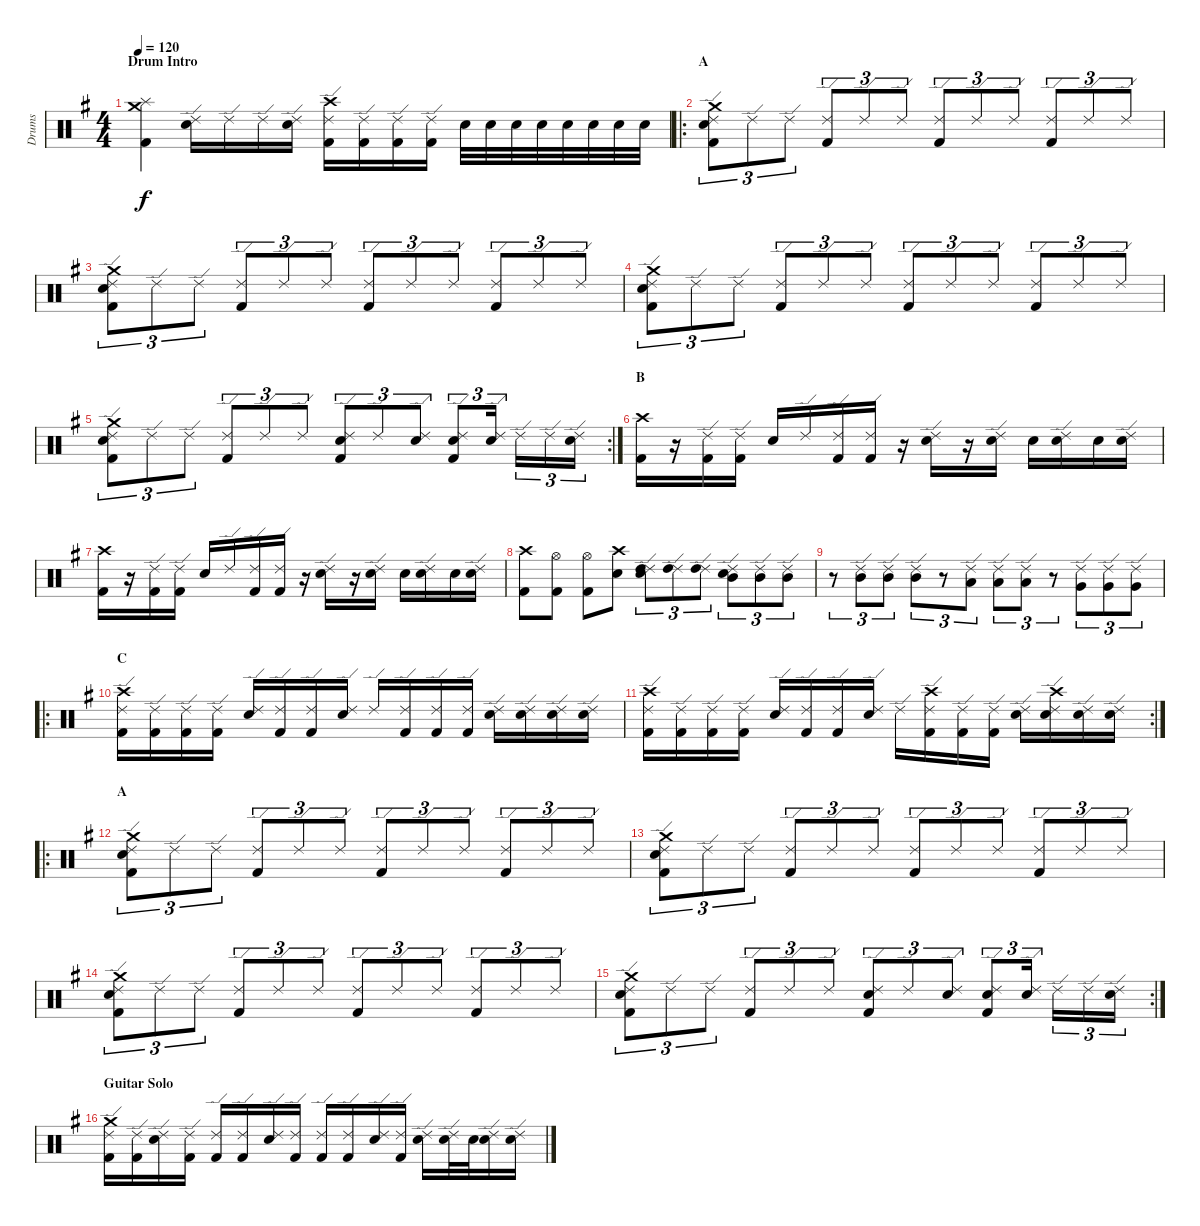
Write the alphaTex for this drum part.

\track ("Drums" "Drums") {instrument percussion}
\staff {score}
\articulation defaults
\ts (4 4)
\section ("" "Drum Intro")
\tempo 120
\clef neutral
\ks eminor
("Crash medium (hit)" "Splash (hit)" "Kick (hit) 2").4{dy f} ("Ride (edge) 2" "Electric Snare (hit)").16 "Ride (edge) 2".16 "Ride (edge) 2".16 ("Ride (edge) 2" "Electric Snare (hit)").16 ("Crash high (hit)" "Ride (edge) 2" "Kick (hit) 2").16 ("Ride (edge) 2" "Kick (hit) 2").16 ("Ride (edge) 2" "Kick (hit) 2").16 ("Ride (edge) 2" "Kick (hit) 2").16 "Electric Snare (hit)".32 "Electric Snare (hit)".32 "Electric Snare (hit)".32 "Electric Snare (hit)".32 "Electric Snare (hit)".32 "Electric Snare (hit)".32 "Electric Snare (hit)".32 "Electric Snare (hit)".32 |
\ro
\section ("" "A ")
("Crash medium (hit)" "Ride (edge) 2" "Electric Snare (hit)" "Kick (hit) 2").8{tu (3 2)} "Ride (edge) 2".8{tu (3 2)} "Ride (edge) 2".8{tu (3 2)} ("Ride (edge) 2" "Kick (hit) 2").8{tu (3 2)} "Ride (edge) 2".8{tu (3 2)} "Ride (edge) 2".8{tu (3 2)} ("Ride (edge) 2" "Kick (hit) 2").8{tu (3 2)} "Ride (edge) 2".8{tu (3 2)} "Ride (edge) 2".8{tu (3 2)} ("Ride (edge) 2" "Kick (hit) 2").8{tu (3 2)} "Ride (edge) 2".8{tu (3 2)} "Ride (edge) 2".8{tu (3 2)} |
("Crash medium (hit)" "Ride (edge) 2" "Electric Snare (hit)" "Kick (hit) 2").8{tu (3 2)} "Ride (edge) 2".8{tu (3 2)} "Ride (edge) 2".8{tu (3 2)} ("Ride (edge) 2" "Kick (hit) 2").8{tu (3 2)} "Ride (edge) 2".8{tu (3 2)} "Ride (edge) 2".8{tu (3 2)} ("Ride (edge) 2" "Kick (hit) 2").8{tu (3 2)} "Ride (edge) 2".8{tu (3 2)} "Ride (edge) 2".8{tu (3 2)} ("Ride (edge) 2" "Kick (hit) 2").8{tu (3 2)} "Ride (edge) 2".8{tu (3 2)} "Ride (edge) 2".8{tu (3 2)} |
("Crash medium (hit)" "Ride (edge) 2" "Electric Snare (hit)" "Kick (hit) 2").8{tu (3 2)} "Ride (edge) 2".8{tu (3 2)} "Ride (edge) 2".8{tu (3 2)} ("Ride (edge) 2" "Kick (hit) 2").8{tu (3 2)} "Ride (edge) 2".8{tu (3 2)} "Ride (edge) 2".8{tu (3 2)} ("Ride (edge) 2" "Kick (hit) 2").8{tu (3 2)} "Ride (edge) 2".8{tu (3 2)} "Ride (edge) 2".8{tu (3 2)} ("Ride (edge) 2" "Kick (hit) 2").8{tu (3 2)} "Ride (edge) 2".8{tu (3 2)} "Ride (edge) 2".8{tu (3 2)} |
\rc 2
("Crash medium (hit)" "Ride (edge) 2" "Electric Snare (hit)" "Kick (hit) 2").8{tu (3 2)} "Ride (edge) 2".8{tu (3 2)} "Ride (edge) 2".8{tu (3 2)} ("Ride (edge) 2" "Kick (hit) 2").8{tu (3 2)} "Ride (edge) 2".8{tu (3 2)} "Ride (edge) 2".8{tu (3 2)} ("Ride (edge) 2" "Electric Snare (hit)" "Kick (hit) 2").8{tu (3 2)} "Ride (edge) 2".8{tu (3 2)} ("Ride (edge) 2" "Electric Snare (hit)").8{tu (3 2)} ("Ride (edge) 2" "Electric Snare (hit)" "Kick (hit) 2").8{tu (3 2)} ("Ride (edge) 2" "Electric Snare (hit)").16{tu (3 2)} "Ride (edge) 2".16{tu (3 2)} "Ride (edge) 2".16{tu (3 2)} ("Ride (edge) 2" "Electric Snare (hit)").16{tu (3 2)} |
\section ("" "B ")
("Crash high (hit)" "Kick (hit) 2").16 r.16 ("Ride (edge) 2" "Kick (hit) 2").16 ("Ride (edge) 2" "Kick (hit) 2").16 "Electric Snare (hit)".16 "Ride (edge) 2".16 ("Ride (edge) 2" "Kick (hit) 2").16 ("Ride (edge) 2" "Kick (hit) 2").16 r.16 ("Ride (edge) 2" "Electric Snare (hit)").16 r.16 ("Ride (edge) 2" "Electric Snare (hit)").16 "Electric Snare (hit)".16 ("Ride (edge) 2" "Electric Snare (hit)").16 "Electric Snare (hit)".16 ("Ride (edge) 2" "Electric Snare (hit)").16 |
("Crash high (hit)" "Kick (hit) 2").16 r.16 ("Ride (edge) 2" "Kick (hit) 2").16 ("Ride (edge) 2" "Kick (hit) 2").16 "Electric Snare (hit)".16 "Ride (edge) 2".16 ("Ride (edge) 2" "Kick (hit) 2").16 ("Ride (edge) 2" "Kick (hit) 2").16 r.16 ("Ride (edge) 2" "Electric Snare (hit)").16 r.16 ("Ride (edge) 2" "Electric Snare (hit)").16 "Electric Snare (hit)".16 ("Ride (edge) 2" "Electric Snare (hit)").16 "Electric Snare (hit)".16 ("Ride (edge) 2" "Electric Snare (hit)").16 |
("Crash high (hit)" "Kick (hit) 2").8 ("Hi-Hat (open)" "Kick (hit) 2").8 ("Hi-Hat (open)" "Kick (hit) 2").8 ("Crash high (hit)" "Electric Snare (hit)").8 ("Ride (edge) 2" "Electric Snare (hit)" "High Tom (hit)").8{tu (3 2)} ("Ride (edge) 2" "High Tom (hit)").8{tu (3 2)} ("Ride (edge) 2" "High Tom (hit)").8{tu (3 2)} ("Ride (edge) 2" "Electric Snare (hit)" "Mid Tom (hit)").8{tu (3 2)} ("Ride (edge) 2" "Mid Tom (hit)").8{tu (3 2)} ("Ride (edge) 2" "Mid Tom (hit)").8{tu (3 2)} |
r.8{tu (3 2)} ("Ride (edge) 2" "Mid Tom (hit)").8{tu (3 2)} ("Ride (edge) 2" "Mid Tom (hit)").8{tu (3 2)} ("Ride (edge) 2" "Mid Tom (hit)").8{tu (3 2)} r.8{tu (3 2)} ("Ride (edge) 2" "Low Tom (hit)").8{tu (3 2)} ("Ride (edge) 2" "Low Tom (hit)").8{tu (3 2)} ("Ride (edge) 2" "Low Tom (hit)").8{tu (3 2)} r.8{tu (3 2)} ("Ride (edge) 2" "Very Low Tom (hit)").8{tu (3 2)} ("Ride (edge) 2" "Very Low Tom (hit)").8{tu (3 2)} ("Ride (edge) 2" "Very Low Tom (hit)").8{tu (3 2)} |
\ro
\section ("" "C ")
("Crash high (hit)" "Ride (edge) 2" "Kick (hit) 2").16 ("Ride (edge) 2" "Kick (hit) 2").16 ("Ride (edge) 2" "Kick (hit) 2").16 ("Ride (edge) 2" "Kick (hit) 2").16 ("Ride (edge) 2" "Electric Snare (hit)").16 ("Ride (edge) 2" "Kick (hit) 2").16 ("Ride (edge) 2" "Kick (hit) 2").16 ("Ride (edge) 2" "Electric Snare (hit)").16 "Ride (edge) 2".16 ("Ride (edge) 2" "Kick (hit) 2").16 ("Ride (edge) 2" "Kick (hit) 2").16 ("Ride (edge) 2" "Kick (hit) 2").16 ("Ride (edge) 2" "Electric Snare (hit)").16 ("Ride (edge) 2" "Electric Snare (hit)").16 ("Ride (edge) 2" "Electric Snare (hit)").16 ("Ride (edge) 2" "Electric Snare (hit)").16 |
\rc 2
("Crash high (hit)" "Ride (edge) 2" "Kick (hit) 2").16 ("Ride (edge) 2" "Kick (hit) 2").16 ("Ride (edge) 2" "Kick (hit) 2").16 ("Ride (edge) 2" "Kick (hit) 2").16 ("Ride (edge) 2" "Electric Snare (hit)").16 ("Ride (edge) 2" "Kick (hit) 2").16 ("Ride (edge) 2" "Kick (hit) 2").16 ("Ride (edge) 2" "Electric Snare (hit)").16 "Ride (edge) 2".16 ("Crash high (hit)" "Ride (edge) 2" "Kick (hit) 2").16 ("Ride (edge) 2" "Kick (hit) 2").16 ("Ride (edge) 2" "Kick (hit) 2").16 ("Ride (edge) 2" "Electric Snare (hit)").16 ("Crash high (hit)" "Ride (edge) 2" "Electric Snare (hit)").16 ("Ride (edge) 2" "Electric Snare (hit)").16 ("Ride (edge) 2" "Electric Snare (hit)").16 |
\ro
\section ("" "A ")
("Crash medium (hit)" "Ride (edge) 2" "Electric Snare (hit)" "Kick (hit) 2").8{tu (3 2)} "Ride (edge) 2".8{tu (3 2)} "Ride (edge) 2".8{tu (3 2)} ("Ride (edge) 2" "Kick (hit) 2").8{tu (3 2)} "Ride (edge) 2".8{tu (3 2)} "Ride (edge) 2".8{tu (3 2)} ("Ride (edge) 2" "Kick (hit) 2").8{tu (3 2)} "Ride (edge) 2".8{tu (3 2)} "Ride (edge) 2".8{tu (3 2)} ("Ride (edge) 2" "Kick (hit) 2").8{tu (3 2)} "Ride (edge) 2".8{tu (3 2)} "Ride (edge) 2".8{tu (3 2)} |
("Crash medium (hit)" "Ride (edge) 2" "Electric Snare (hit)" "Kick (hit) 2").8{tu (3 2)} "Ride (edge) 2".8{tu (3 2)} "Ride (edge) 2".8{tu (3 2)} ("Ride (edge) 2" "Kick (hit) 2").8{tu (3 2)} "Ride (edge) 2".8{tu (3 2)} "Ride (edge) 2".8{tu (3 2)} ("Ride (edge) 2" "Kick (hit) 2").8{tu (3 2)} "Ride (edge) 2".8{tu (3 2)} "Ride (edge) 2".8{tu (3 2)} ("Ride (edge) 2" "Kick (hit) 2").8{tu (3 2)} "Ride (edge) 2".8{tu (3 2)} "Ride (edge) 2".8{tu (3 2)} |
("Crash medium (hit)" "Ride (edge) 2" "Electric Snare (hit)" "Kick (hit) 2").8{tu (3 2)} "Ride (edge) 2".8{tu (3 2)} "Ride (edge) 2".8{tu (3 2)} ("Ride (edge) 2" "Kick (hit) 2").8{tu (3 2)} "Ride (edge) 2".8{tu (3 2)} "Ride (edge) 2".8{tu (3 2)} ("Ride (edge) 2" "Kick (hit) 2").8{tu (3 2)} "Ride (edge) 2".8{tu (3 2)} "Ride (edge) 2".8{tu (3 2)} ("Ride (edge) 2" "Kick (hit) 2").8{tu (3 2)} "Ride (edge) 2".8{tu (3 2)} "Ride (edge) 2".8{tu (3 2)} |
\rc 2
("Crash medium (hit)" "Ride (edge) 2" "Electric Snare (hit)" "Kick (hit) 2").8{tu (3 2)} "Ride (edge) 2".8{tu (3 2)} "Ride (edge) 2".8{tu (3 2)} ("Ride (edge) 2" "Kick (hit) 2").8{tu (3 2)} "Ride (edge) 2".8{tu (3 2)} "Ride (edge) 2".8{tu (3 2)} ("Ride (edge) 2" "Electric Snare (hit)" "Kick (hit) 2").8{tu (3 2)} "Ride (edge) 2".8{tu (3 2)} ("Ride (edge) 2" "Electric Snare (hit)").8{tu (3 2)} ("Ride (edge) 2" "Electric Snare (hit)" "Kick (hit) 2").8{tu (3 2)} ("Ride (edge) 2" "Electric Snare (hit)").16{tu (3 2)} "Ride (edge) 2".16{tu (3 2)} "Ride (edge) 2".16{tu (3 2)} ("Ride (edge) 2" "Electric Snare (hit)").16{tu (3 2)} |
\section ("" "Guitar Solo")
("Crash medium (hit)" "Ride (edge) 2" "Kick (hit) 2").16 ("Ride (edge) 2" "Kick (hit) 2").16 ("Ride (edge) 2" "Electric Snare (hit)").16 ("Ride (edge) 2" "Kick (hit) 2").16 ("Ride (edge) 2" "Kick (hit) 2").16 ("Ride (edge) 2" "Kick (hit) 2").16 ("Ride (edge) 2" "Electric Snare (hit)").16 ("Ride (edge) 2" "Kick (hit) 2").16 ("Ride (edge) 2" "Kick (hit) 2").16 ("Ride (edge) 2" "Kick (hit) 2").16 ("Ride (edge) 2" "Electric Snare (hit)").16 ("Ride (edge) 2" "Kick (hit) 2").16 ("Ride (edge) 2" "Electric Snare (hit)").16 ("Ride (edge) 2" "Electric Snare (hit)").32 "Electric Snare (hit)".32 ("Ride (edge) 2" "Electric Snare (hit)").16 ("Ride (edge) 2" "Electric Snare (hit)").16
